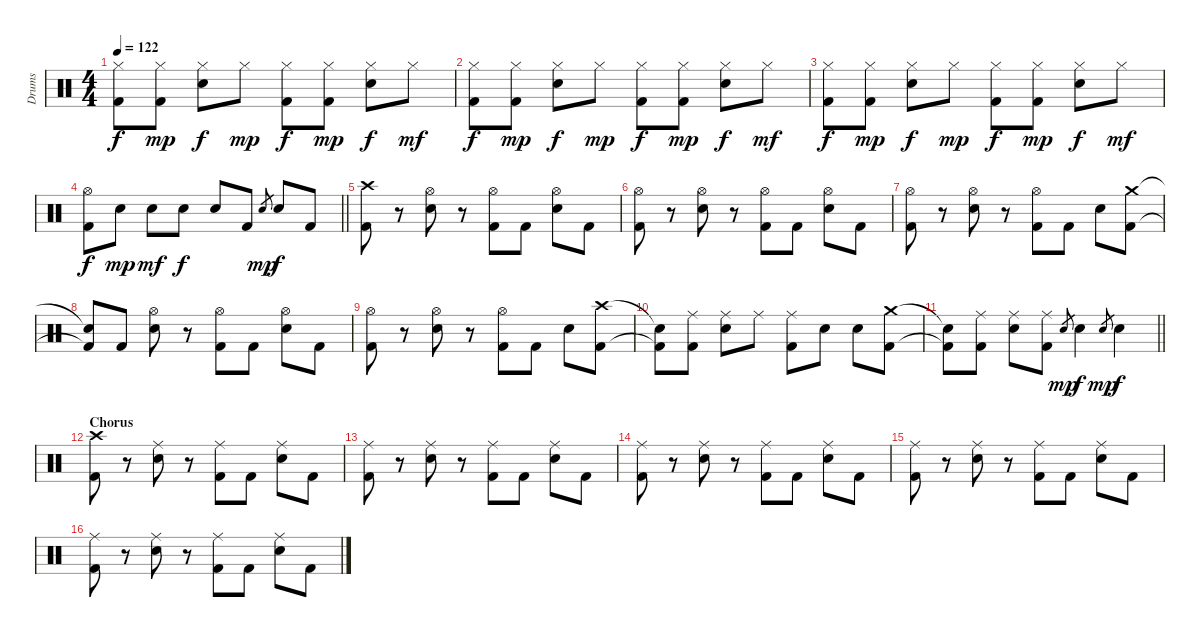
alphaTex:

\track ("Drums" "Drums") {instrument percussion}
\staff {score}
\articulation defaults
\ts (4 4)
\tempo 122
\clef neutral
\ks c
("Kick (hit) 2" "Hi-Hat (closed)").8{dy f} ("Kick (hit) 2" "Hi-Hat (closed)").8{dy mp} ("Snare (hit) 2" "Hi-Hat (closed)").8{dy f} "Hi-Hat (closed)".8{dy mp} ("Kick (hit) 2" "Hi-Hat (closed)").8{dy f} ("Kick (hit) 2" "Hi-Hat (closed)").8{dy mp} ("Snare (hit) 2" "Hi-Hat (closed)").8{dy f} "Hi-Hat (closed)".8{dy mf} |
("Kick (hit) 2" "Hi-Hat (closed)").8{dy f} ("Kick (hit) 2" "Hi-Hat (closed)").8{dy mp} ("Snare (hit) 2" "Hi-Hat (closed)").8{dy f} "Hi-Hat (closed)".8{dy mp} ("Kick (hit) 2" "Hi-Hat (closed)").8{dy f} ("Kick (hit) 2" "Hi-Hat (closed)").8{dy mp} ("Snare (hit) 2" "Hi-Hat (closed)").8{dy f} "Hi-Hat (closed)".8{dy mf} |
("Kick (hit) 2" "Hi-Hat (closed)").8{dy f} ("Kick (hit) 2" "Hi-Hat (closed)").8{dy mp} ("Snare (hit) 2" "Hi-Hat (closed)").8{dy f} "Hi-Hat (closed)".8{dy mp} ("Kick (hit) 2" "Hi-Hat (closed)").8{dy f} ("Kick (hit) 2" "Hi-Hat (closed)").8{dy mp} ("Snare (hit) 2" "Hi-Hat (closed)").8{dy f} "Hi-Hat (closed)".8{dy mf} |
\barLineRight lightlight
("Kick (hit) 2" "Hi-Hat (open)").8{dy f} "Snare (hit) 2".8{dy mp} "Snare (hit) 2".8{dy mf} "Snare (hit) 2".8{dy f} "Snare (hit) 2".8 "Kick (hit) 2".8 "Snare (hit) 2".8{gr dy mp} "Snare (hit) 2".8{dy f} "Kick (hit) 2".8 |
\section ("" " ")
("Kick (hit) 2" "Crash high (hit)").8 r.8 ("Snare (hit) 2" "Hi-Hat (open)").8 r.8 ("Kick (hit) 2" "Hi-Hat (open)").8 "Kick (hit) 2".8 ("Snare (hit) 2" "Hi-Hat (open)").8 "Kick (hit) 2".8 |
("Kick (hit) 2" "Hi-Hat (open)").8 r.8 ("Snare (hit) 2" "Hi-Hat (open)").8 r.8 ("Kick (hit) 2" "Hi-Hat (open)").8 "Kick (hit) 2".8 ("Snare (hit) 2" "Hi-Hat (open)").8 "Kick (hit) 2".8 |
("Kick (hit) 2" "Hi-Hat (open)").8 r.8 ("Snare (hit) 2" "Hi-Hat (open)").8 r.8 ("Kick (hit) 2" "Hi-Hat (open)").8 "Kick (hit) 2".8 "Snare (hit) 2".8 ("Kick (hit) 2" "Crash medium (hit)").8 |
("Kick (hit) 2"{t} "Snare (hit)"{t}).8 "Kick (hit) 2".8 ("Snare (hit) 2" "Hi-Hat (open)").8 r.8 ("Kick (hit) 2" "Hi-Hat (open)").8 "Kick (hit) 2".8 ("Snare (hit) 2" "Hi-Hat (open)").8 "Kick (hit) 2".8 |
("Kick (hit) 2" "Hi-Hat (open)").8 r.8 ("Snare (hit) 2" "Hi-Hat (open)").8 r.8 ("Kick (hit) 2" "Hi-Hat (open)").8 "Kick (hit) 2".8 "Snare (hit) 2".8 ("Kick (hit) 2" "Crash high (hit)").8 |
("Kick (hit) 2"{t} "Snare (hit)"{t}).8 ("Kick (hit) 2" "Ride (middle)").8 ("Snare (hit) 2" "Ride (middle)").8 "Ride (middle)".8 ("Kick (hit) 2" "Ride (middle)").8 "Snare (hit) 2".8 "Snare (hit) 2".8 ("Kick (hit) 2" "Crash medium (hit)").8 |
\barLineRight lightlight
("Kick (hit) 2"{t} "Snare (hit)"{t}).8 ("Kick (hit) 2" "Ride (middle)").8 ("Snare (hit) 2" "Ride (middle)").8 ("Kick (hit) 2" "Ride (middle)").8 "Snare (hit) 2".8{gr dy mp} "Snare (hit) 2".4{dy f} "Snare (hit) 2".8{gr dy mp} "Snare (hit) 2".4{dy f} |
\section ("" "Chorus")
("Kick (hit) 2" "Crash high (hit)").8 r.8 ("Snare (hit) 2" "Ride (middle)").8 r.8 ("Kick (hit) 2" "Ride (middle)").8 "Kick (hit) 2".8 ("Snare (hit) 2" "Ride (middle)").8 "Kick (hit) 2".8 |
("Kick (hit) 2" "Ride (middle)").8 r.8 ("Snare (hit) 2" "Ride (middle)").8 r.8 ("Kick (hit) 2" "Ride (middle)").8 "Kick (hit) 2".8 ("Snare (hit) 2" "Ride (middle)").8 "Kick (hit) 2".8 |
("Kick (hit) 2" "Ride (middle)").8 r.8 ("Snare (hit) 2" "Ride (middle)").8 r.8 ("Kick (hit) 2" "Ride (middle)").8 "Kick (hit) 2".8 ("Snare (hit) 2" "Ride (middle)").8 "Kick (hit) 2".8 |
("Kick (hit) 2" "Ride (middle)").8 r.8 ("Snare (hit) 2" "Ride (middle)").8 r.8 ("Kick (hit) 2" "Ride (middle)").8 "Kick (hit) 2".8 ("Snare (hit) 2" "Ride (middle)").8 "Kick (hit) 2".8 |
("Kick (hit) 2" "Ride (middle)").8 r.8 ("Snare (hit) 2" "Ride (middle)").8 r.8 ("Kick (hit) 2" "Ride (middle)").8 "Kick (hit) 2".8 ("Snare (hit) 2" "Ride (middle)").8 "Kick (hit) 2".8
